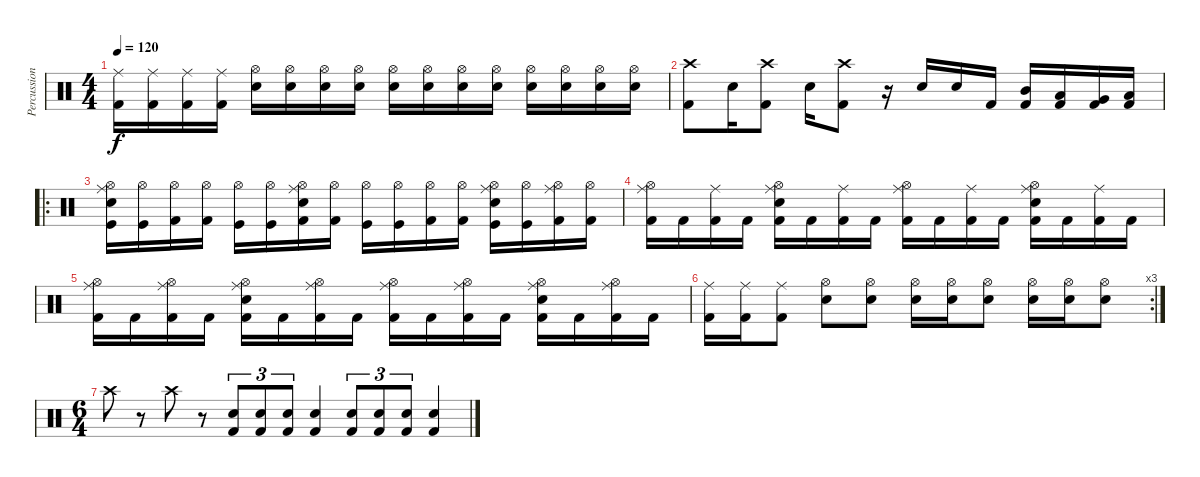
\track ("Percussions" "Percussion") {instrument percussion}
\staff {score}
\articulation defaults
\ts (4 4)
\tempo 120
\clef neutral
\ks c
("Kick (hit) 2" "Ride (middle)").16{dy f} ("Kick (hit) 2" "Ride (middle)").16 ("Kick (hit) 2" "Ride (middle)").16 ("Kick (hit) 2" "Ride (middle)").16 ("Snare (hit) 2" "Hi-Hat (open)").16 ("Snare (hit) 2" "Hi-Hat (open)").16 ("Snare (hit) 2" "Hi-Hat (open)").16 ("Snare (hit) 2" "Hi-Hat (open)").16 ("Snare (hit) 2" "Hi-Hat (open)").16 ("Snare (hit) 2" "Hi-Hat (open)").16 ("Snare (hit) 2" "Hi-Hat (open)").16 ("Snare (hit) 2" "Hi-Hat (open)").16 ("Snare (hit) 2" "Hi-Hat (open)").16 ("Snare (hit) 2" "Hi-Hat (open)").16 ("Snare (hit) 2" "Hi-Hat (open)").16 ("Snare (hit) 2" "Hi-Hat (open)").16 |
("Kick (hit) 2" "Crash high (hit)").8 "Snare (hit) 2".16 ("Kick (hit) 2" "Crash high (hit)").8 "Snare (hit) 2".16 ("Kick (hit) 2" "Crash high (hit)").8 r.16 "Snare (hit) 2".16 "Snare (hit) 2".16 "Kick (hit) 2".16 ("Kick (hit) 2" "Mid Tom (hit)").16 ("Kick (hit) 2" "Low Tom (hit)").16 ("Kick (hit) 2" "Very Low Tom (hit)").16 ("Kick (hit) 2" "Low Floor Tom (hit)").16 |
\ro
("Kick (hit)" "Ride (middle)" "Snare (hit) 2" "Hi-Hat (open)").16 ("Kick (hit)" "Hi-Hat (open)").16 ("Kick (hit) 2" "Hi-Hat (open)").16 ("Kick (hit) 2" "Hi-Hat (open)").16 ("Kick (hit)" "Hi-Hat (open)").16 ("Kick (hit)" "Hi-Hat (open)").16 ("Kick (hit) 2" "Ride (middle)" "Snare (hit) 2" "Hi-Hat (open)").16 ("Kick (hit) 2" "Hi-Hat (open)").16 ("Kick (hit)" "Hi-Hat (open)").16 ("Kick (hit)" "Hi-Hat (open)").16 ("Kick (hit) 2" "Hi-Hat (open)").16 ("Kick (hit) 2" "Hi-Hat (open)").16 ("Kick (hit)" "Snare (hit) 2" "Ride (middle)" "Hi-Hat (open)").16 ("Kick (hit)" "Hi-Hat (open)").16 ("Kick (hit) 2" "Ride (middle)" "Hi-Hat (open)").16 ("Kick (hit) 2" "Hi-Hat (open)").16 |
("Kick (hit) 2" "Ride (middle)" "Hi-Hat (open)").16 "Kick (hit) 2".16 ("Kick (hit) 2" "Ride (middle)").16 "Kick (hit) 2".16 ("Kick (hit) 2" "Snare (hit) 2" "Ride (middle)" "Hi-Hat (open)").16 "Kick (hit) 2".16 ("Kick (hit) 2" "Ride (middle)").16 "Kick (hit) 2".16 ("Kick (hit) 2" "Ride (middle)" "Hi-Hat (open)").16 "Kick (hit) 2".16 ("Kick (hit) 2" "Ride (middle)").16 "Kick (hit) 2".16 ("Kick (hit) 2" "Snare (hit) 2" "Ride (middle)" "Hi-Hat (open)").16 "Kick (hit) 2".16 ("Kick (hit) 2" "Ride (middle)").16 "Kick (hit) 2".16 |
("Kick (hit) 2" "Ride (middle)" "Hi-Hat (open)").16 "Kick (hit) 2".16 ("Kick (hit) 2" "Ride (middle)" "Hi-Hat (open)").16 "Kick (hit) 2".16 ("Kick (hit) 2" "Snare (hit) 2" "Ride (middle)" "Hi-Hat (open)").16 "Kick (hit) 2".16 ("Kick (hit) 2" "Ride (middle)" "Hi-Hat (open)").16 "Kick (hit) 2".16 ("Kick (hit) 2" "Ride (middle)" "Hi-Hat (open)").16 "Kick (hit) 2".16 ("Kick (hit) 2" "Ride (middle)" "Hi-Hat (open)").16 "Kick (hit) 2".16 ("Kick (hit) 2" "Snare (hit) 2" "Ride (middle)" "Hi-Hat (open)").16 "Kick (hit) 2".16 ("Kick (hit) 2" "Ride (middle)" "Hi-Hat (open)").16 "Kick (hit) 2".16 |
\rc 3
("Kick (hit) 2" "Ride (middle)").16 ("Kick (hit) 2" "Ride (middle)").16 ("Kick (hit) 2" "Ride (middle)").8 ("Snare (hit) 2" "Hi-Hat (open)").8 ("Snare (hit) 2" "Hi-Hat (open)").8 ("Snare (hit) 2" "Hi-Hat (open)").16 ("Snare (hit) 2" "Hi-Hat (open)").16 ("Snare (hit) 2" "Hi-Hat (open)").8 ("Snare (hit) 2" "Hi-Hat (open)").16 ("Snare (hit) 2" "Hi-Hat (open)").16 ("Snare (hit) 2" "Hi-Hat (open)").8 |
\ts (6 4)
"Crash high (hit)".8 r.8 "Crash high (hit)".8 r.8 ("Snare (hit) 2" "Kick (hit) 2").8{tu (3 2)} ("Snare (hit) 2" "Kick (hit) 2").8{tu (3 2)} ("Snare (hit) 2" "Kick (hit) 2").8{tu (3 2)} ("Snare (hit) 2" "Kick (hit) 2").4 ("Snare (hit) 2" "Kick (hit) 2").8{tu (3 2)} ("Snare (hit) 2" "Kick (hit) 2").8{tu (3 2)} ("Snare (hit) 2" "Kick (hit) 2").8{tu (3 2)} ("Snare (hit) 2" "Kick (hit) 2").4
